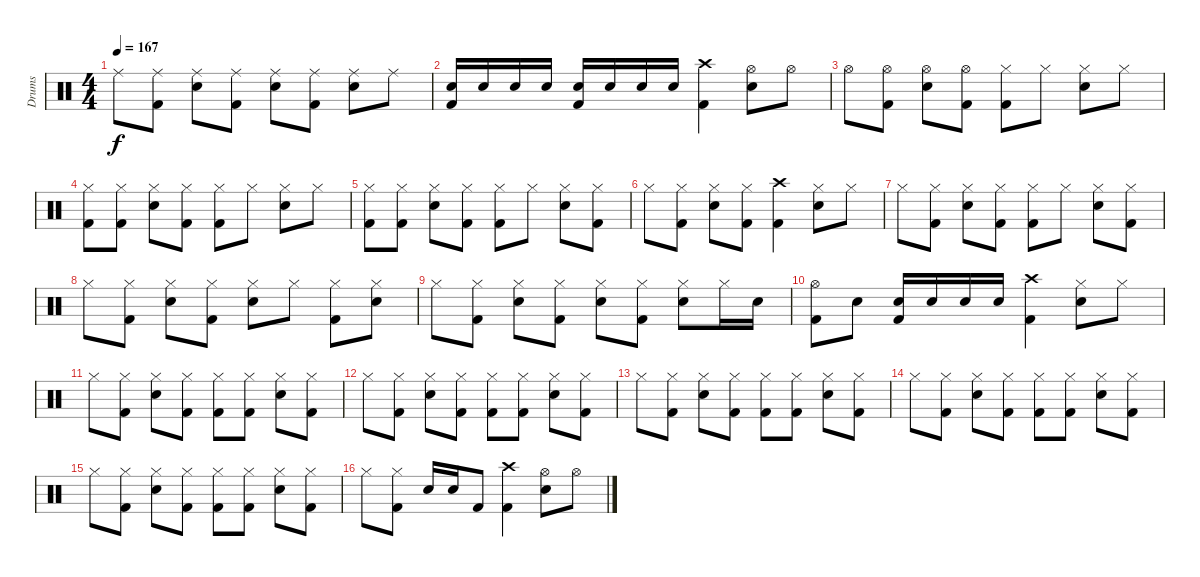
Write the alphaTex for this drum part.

\track ("Drums" "Drums") {instrument percussion}
\staff {score}
\articulation defaults
\ts (4 4)
\tempo 167
\clef neutral
\ks c "Ride (middle)".8{dy f}
("Kick (hit) 2" "Ride (middle)").8 ("Snare (hit) 2" "Ride (middle)").8 ("Ride (middle)" "Kick (hit) 2").8 ("Snare (hit) 2" "Ride (middle)").8 ("Kick (hit) 2" "Ride (middle)").8 ("Snare (hit) 2" "Ride (middle)").8 "Ride (middle)".8 |
("Snare (hit) 2" "Kick (hit) 2").16 "Snare (hit) 2".16 "Snare (hit) 2".16 "Snare (hit) 2".16 ("Snare (hit) 2" "Kick (hit) 2").16 "Snare (hit) 2".16 "Snare (hit) 2".16 "Snare (hit) 2".16 ("Kick (hit) 2" "Crash high (hit)").4 ("Snare (hit) 2" "Hi-Hat (open)").8 "Hi-Hat (open)".8 |
"Hi-Hat (open)".8 ("Kick (hit) 2" "Hi-Hat (open)").8 ("Snare (hit) 2" "Hi-Hat (open)").8 ("Kick (hit) 2" "Hi-Hat (open)").8 ("Kick (hit) 2" "Hi-Hat (closed)").8 "Hi-Hat (closed)".8 ("Snare (hit) 2" "Hi-Hat (closed)").8 "Hi-Hat (closed)".8 |
("Kick (hit) 2" "Hi-Hat (closed)").8 ("Kick (hit) 2" "Hi-Hat (closed)").8 ("Snare (hit) 2" "Hi-Hat (closed)").8 ("Kick (hit) 2" "Hi-Hat (closed)").8 ("Kick (hit) 2" "Hi-Hat (closed)").8 "Hi-Hat (closed)".8 ("Snare (hit) 2" "Hi-Hat (closed)").8 "Hi-Hat (closed)".8 |
("Kick (hit) 2" "Hi-Hat (closed)").8 ("Kick (hit) 2" "Hi-Hat (closed)").8 ("Snare (hit) 2" "Hi-Hat (closed)").8 ("Kick (hit) 2" "Hi-Hat (closed)").8 ("Kick (hit) 2" "Hi-Hat (closed)").8 "Hi-Hat (closed)".8 ("Snare (hit) 2" "Hi-Hat (closed)").8 ("Kick (hit) 2" "Hi-Hat (closed)").8 |
"Hi-Hat (closed)".8 ("Kick (hit) 2" "Hi-Hat (closed)").8 ("Snare (hit) 2" "Hi-Hat (closed)").8 ("Kick (hit) 2" "Hi-Hat (closed)").8 ("Kick (hit) 2" "Crash high (hit)").4 ("Snare (hit) 2" "Hi-Hat (closed)").8 "Hi-Hat (closed)".8 |
"Hi-Hat (closed)".8 ("Kick (hit) 2" "Hi-Hat (closed)").8 ("Snare (hit) 2" "Hi-Hat (closed)").8 ("Kick (hit) 2" "Hi-Hat (closed)").8 ("Kick (hit) 2" "Hi-Hat (closed)").8 "Hi-Hat (closed)".8 ("Snare (hit) 2" "Hi-Hat (closed)").8 ("Kick (hit) 2" "Hi-Hat (closed)").8 |
"Hi-Hat (closed)".8 ("Kick (hit) 2" "Hi-Hat (closed)").8 ("Snare (hit) 2" "Hi-Hat (closed)").8 ("Kick (hit) 2" "Hi-Hat (closed)").8 ("Snare (hit) 2" "Hi-Hat (closed)").8 "Hi-Hat (closed)".8 ("Kick (hit) 2" "Hi-Hat (closed)").8 ("Snare (hit) 2" "Hi-Hat (closed)").8 |
"Hi-Hat (closed)".8 ("Kick (hit) 2" "Hi-Hat (closed)").8 ("Snare (hit) 2" "Hi-Hat (closed)").8 ("Kick (hit) 2" "Hi-Hat (closed)").8 ("Snare (hit) 2" "Hi-Hat (closed)").8 ("Kick (hit) 2" "Hi-Hat (closed)").8 ("Hi-Hat (closed)" "Snare (hit) 2").8 "Hi-Hat (closed)".16 "Snare (hit) 2".16 |
("Kick (hit) 2" "Hi-Hat (open)").8 "Snare (hit) 2".8 ("Kick (hit) 2" "Snare (hit) 2").16 "Snare (hit) 2".16 "Snare (hit) 2".16 "Snare (hit) 2".16 ("Kick (hit) 2" "Crash high (hit)").4 ("Hi-Hat (closed)" "Snare (hit) 2").8 "Hi-Hat (closed)".8 |
"Hi-Hat (closed)".8 ("Hi-Hat (closed)" "Kick (hit) 2").8 ("Hi-Hat (closed)" "Snare (hit) 2").8 ("Hi-Hat (closed)" "Kick (hit) 2").8 ("Kick (hit) 2" "Hi-Hat (closed)").8 ("Kick (hit) 2" "Hi-Hat (closed)").8 ("Snare (hit) 2" "Hi-Hat (closed)").8 ("Kick (hit) 2" "Hi-Hat (closed)").8 |
"Hi-Hat (closed)".8 ("Kick (hit) 2" "Hi-Hat (closed)").8 ("Snare (hit) 2" "Hi-Hat (closed)").8 ("Kick (hit) 2" "Hi-Hat (closed)").8 ("Kick (hit) 2" "Hi-Hat (closed)").8 ("Kick (hit) 2" "Hi-Hat (closed)").8 ("Snare (hit) 2" "Hi-Hat (closed)").8 ("Kick (hit) 2" "Hi-Hat (closed)").8 |
"Hi-Hat (closed)".8 ("Kick (hit) 2" "Hi-Hat (closed)").8 ("Snare (hit) 2" "Hi-Hat (closed)").8 ("Kick (hit) 2" "Hi-Hat (closed)").8 ("Kick (hit) 2" "Hi-Hat (closed)").8 ("Kick (hit) 2" "Hi-Hat (closed)").8 ("Snare (hit) 2" "Hi-Hat (closed)").8 ("Kick (hit) 2" "Hi-Hat (closed)").8 |
"Hi-Hat (closed)".8 ("Kick (hit) 2" "Hi-Hat (closed)").8 ("Snare (hit) 2" "Hi-Hat (closed)").8 ("Kick (hit) 2" "Hi-Hat (closed)").8 ("Kick (hit) 2" "Hi-Hat (closed)").8 ("Kick (hit) 2" "Hi-Hat (closed)").8 ("Snare (hit) 2" "Hi-Hat (closed)").8 ("Kick (hit) 2" "Hi-Hat (closed)").8 |
"Hi-Hat (closed)".8 ("Kick (hit) 2" "Hi-Hat (closed)").8 ("Snare (hit) 2" "Hi-Hat (closed)").8 ("Kick (hit) 2" "Hi-Hat (closed)").8 ("Kick (hit) 2" "Hi-Hat (closed)").8 ("Kick (hit) 2" "Hi-Hat (closed)").8 ("Snare (hit) 2" "Hi-Hat (closed)").8 ("Kick (hit) 2" "Hi-Hat (closed)").8 |
"Hi-Hat (closed)".8 ("Kick (hit) 2" "Hi-Hat (closed)").8 "Snare (hit) 2".16 "Snare (hit) 2".16 "Kick (hit) 2".8 ("Kick (hit) 2" "Crash high (hit)").4 ("Hi-Hat (open)" "Snare (hit) 2").8 "Hi-Hat (open)".8
